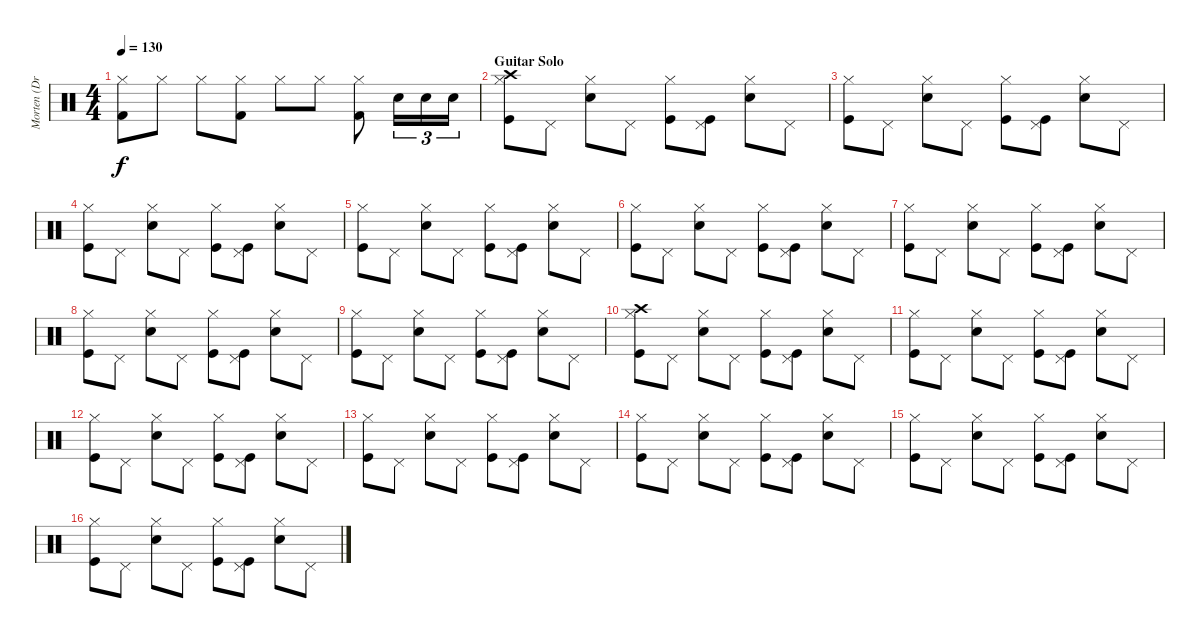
\track ("Morten (Drums)" "Morten (Dr") {instrument percussion}
\staff {score}
\articulation defaults
\ts (4 4)
\tempo 130
\clef neutral
\ks c
("Hi-Hat (closed)" "Kick (hit) 2").8{dy f} "Hi-Hat (closed)".8 "Hi-Hat (closed)".8 ("Hi-Hat (closed)" "Kick (hit) 2").8 "Hi-Hat (closed)".8 "Hi-Hat (closed)".8 ("Hi-Hat (closed)" "Kick (hit) 2").8 "Snare (hit) 2".16{tu (3 2)} "Snare (hit) 2".16{tu (3 2)} "Snare (hit) 2".16{tu (3 2)} |
\section ("" "Guitar Solo")
("Hi-Hat (closed)" "Kick (hit)" "Crash high (hit)").8 "Pedal Hi-Hat (hit)".8 ("Hi-Hat (closed)" "Snare (hit) 2").8 "Pedal Hi-Hat (hit)".8 ("Hi-Hat (closed)" "Kick (hit)").8 ("Pedal Hi-Hat (hit)" "Kick (hit)").8 ("Hi-Hat (closed)" "Snare (hit) 2").8 "Pedal Hi-Hat (hit)".8 |
("Hi-Hat (closed)" "Kick (hit)").8 "Pedal Hi-Hat (hit)".8 ("Hi-Hat (closed)" "Snare (hit) 2").8 "Pedal Hi-Hat (hit)".8 ("Hi-Hat (closed)" "Kick (hit)").8 ("Pedal Hi-Hat (hit)" "Kick (hit)").8 ("Hi-Hat (closed)" "Snare (hit) 2").8 "Pedal Hi-Hat (hit)".8 |
("Hi-Hat (closed)" "Kick (hit)").8 "Pedal Hi-Hat (hit)".8 ("Hi-Hat (closed)" "Snare (hit) 2").8 "Pedal Hi-Hat (hit)".8 ("Hi-Hat (closed)" "Kick (hit)").8 ("Pedal Hi-Hat (hit)" "Kick (hit)").8 ("Hi-Hat (closed)" "Snare (hit) 2").8 "Pedal Hi-Hat (hit)".8 |
("Hi-Hat (closed)" "Kick (hit)").8 "Pedal Hi-Hat (hit)".8 ("Hi-Hat (closed)" "Snare (hit) 2").8 "Pedal Hi-Hat (hit)".8 ("Hi-Hat (closed)" "Kick (hit)").8 ("Pedal Hi-Hat (hit)" "Kick (hit)").8 ("Hi-Hat (closed)" "Snare (hit) 2").8 "Pedal Hi-Hat (hit)".8 |
("Hi-Hat (closed)" "Kick (hit)").8 "Pedal Hi-Hat (hit)".8 ("Hi-Hat (closed)" "Snare (hit) 2").8 "Pedal Hi-Hat (hit)".8 ("Hi-Hat (closed)" "Kick (hit)").8 ("Pedal Hi-Hat (hit)" "Kick (hit)").8 ("Hi-Hat (closed)" "Snare (hit) 2").8 "Pedal Hi-Hat (hit)".8 |
("Hi-Hat (closed)" "Kick (hit)").8 "Pedal Hi-Hat (hit)".8 ("Hi-Hat (closed)" "Snare (hit) 2").8 "Pedal Hi-Hat (hit)".8 ("Hi-Hat (closed)" "Kick (hit)").8 ("Pedal Hi-Hat (hit)" "Kick (hit)").8 ("Hi-Hat (closed)" "Snare (hit) 2").8 "Pedal Hi-Hat (hit)".8 |
("Hi-Hat (closed)" "Kick (hit)").8 "Pedal Hi-Hat (hit)".8 ("Hi-Hat (closed)" "Snare (hit) 2").8 "Pedal Hi-Hat (hit)".8 ("Hi-Hat (closed)" "Kick (hit)").8 ("Pedal Hi-Hat (hit)" "Kick (hit)").8 ("Hi-Hat (closed)" "Snare (hit) 2").8 "Pedal Hi-Hat (hit)".8 |
("Hi-Hat (closed)" "Kick (hit)").8 "Pedal Hi-Hat (hit)".8 ("Hi-Hat (closed)" "Snare (hit) 2").8 "Pedal Hi-Hat (hit)".8 ("Hi-Hat (closed)" "Kick (hit)").8 ("Pedal Hi-Hat (hit)" "Kick (hit)").8 ("Hi-Hat (closed)" "Snare (hit) 2").8 "Pedal Hi-Hat (hit)".8 |
("Hi-Hat (closed)" "Kick (hit)" "Crash high (hit)").8 "Pedal Hi-Hat (hit)".8 ("Hi-Hat (closed)" "Snare (hit) 2").8 "Pedal Hi-Hat (hit)".8 ("Hi-Hat (closed)" "Kick (hit)").8 ("Pedal Hi-Hat (hit)" "Kick (hit)").8 ("Hi-Hat (closed)" "Snare (hit) 2").8 "Pedal Hi-Hat (hit)".8 |
("Hi-Hat (closed)" "Kick (hit)").8 "Pedal Hi-Hat (hit)".8 ("Hi-Hat (closed)" "Snare (hit) 2").8 "Pedal Hi-Hat (hit)".8 ("Hi-Hat (closed)" "Kick (hit)").8 ("Pedal Hi-Hat (hit)" "Kick (hit)").8 ("Hi-Hat (closed)" "Snare (hit) 2").8 "Pedal Hi-Hat (hit)".8 |
("Hi-Hat (closed)" "Kick (hit)").8 "Pedal Hi-Hat (hit)".8 ("Hi-Hat (closed)" "Snare (hit) 2").8 "Pedal Hi-Hat (hit)".8 ("Hi-Hat (closed)" "Kick (hit)").8 ("Pedal Hi-Hat (hit)" "Kick (hit)").8 ("Hi-Hat (closed)" "Snare (hit) 2").8 "Pedal Hi-Hat (hit)".8 |
("Hi-Hat (closed)" "Kick (hit)").8 "Pedal Hi-Hat (hit)".8 ("Hi-Hat (closed)" "Snare (hit) 2").8 "Pedal Hi-Hat (hit)".8 ("Hi-Hat (closed)" "Kick (hit)").8 ("Pedal Hi-Hat (hit)" "Kick (hit)").8 ("Hi-Hat (closed)" "Snare (hit) 2").8 "Pedal Hi-Hat (hit)".8 |
("Hi-Hat (closed)" "Kick (hit)").8 "Pedal Hi-Hat (hit)".8 ("Hi-Hat (closed)" "Snare (hit) 2").8 "Pedal Hi-Hat (hit)".8 ("Hi-Hat (closed)" "Kick (hit)").8 ("Pedal Hi-Hat (hit)" "Kick (hit)").8 ("Hi-Hat (closed)" "Snare (hit) 2").8 "Pedal Hi-Hat (hit)".8 |
("Hi-Hat (closed)" "Kick (hit)").8 "Pedal Hi-Hat (hit)".8 ("Hi-Hat (closed)" "Snare (hit) 2").8 "Pedal Hi-Hat (hit)".8 ("Hi-Hat (closed)" "Kick (hit)").8 ("Pedal Hi-Hat (hit)" "Kick (hit)").8 ("Hi-Hat (closed)" "Snare (hit) 2").8 "Pedal Hi-Hat (hit)".8 |
("Hi-Hat (closed)" "Kick (hit)").8 "Pedal Hi-Hat (hit)".8 ("Hi-Hat (closed)" "Snare (hit) 2").8 "Pedal Hi-Hat (hit)".8 ("Hi-Hat (closed)" "Kick (hit)").8 ("Pedal Hi-Hat (hit)" "Kick (hit)").8 ("Hi-Hat (closed)" "Snare (hit) 2").8 "Pedal Hi-Hat (hit)".8
